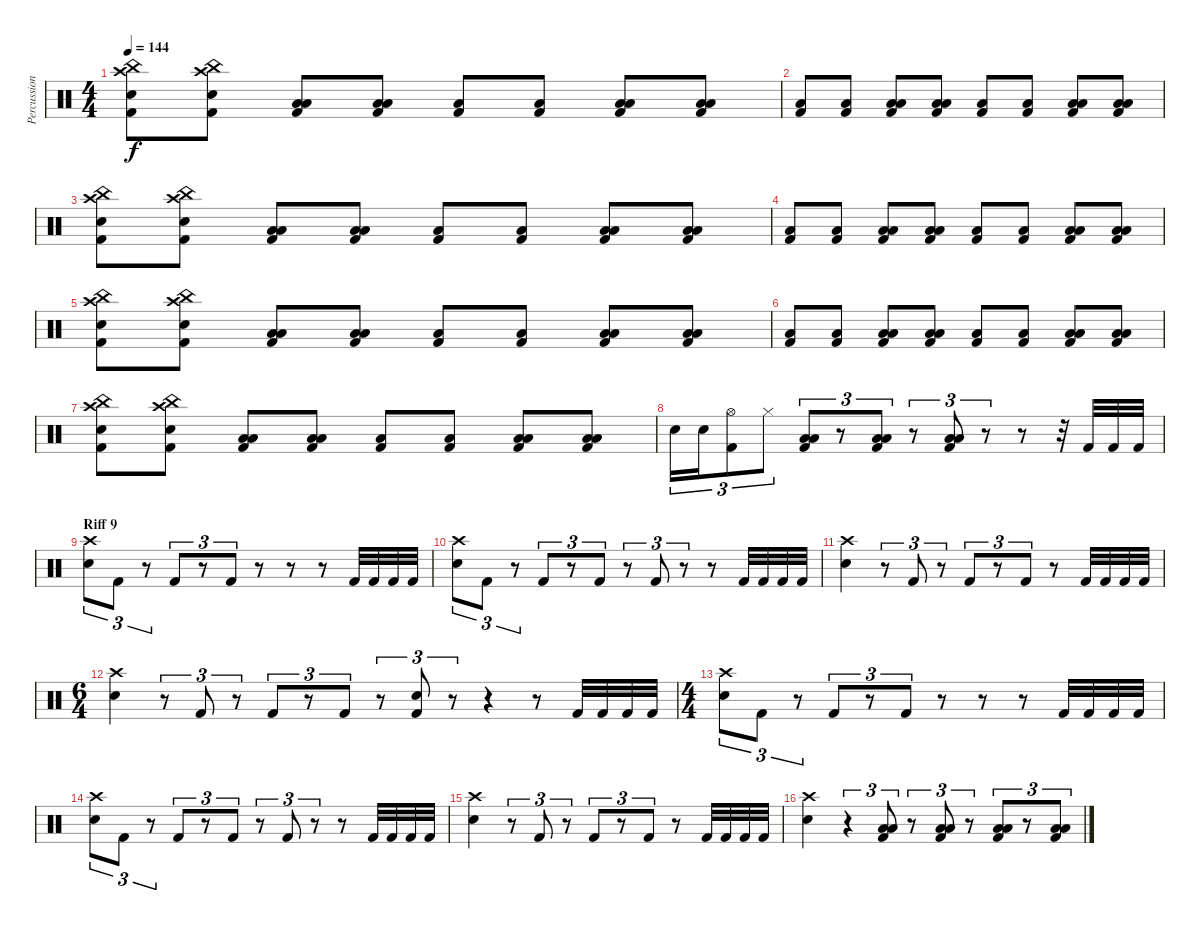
\track ("Percussion" "Percussion") {instrument percussion}
\staff {score}
\articulation defaults
\ts (4 4)
\tempo 144
\clef neutral
\ks c
("China (hit)" "Crash high (hit)" "Electric Snare (hit)" "Kick (hit) 2").8{dy f} ("China (hit)" "Crash high (hit)" "Electric Snare (hit)" "Kick (hit) 2").8 ("Low Tom (hit)" "Low Floor Tom (hit)" "Kick (hit) 2").8 ("Low Tom (hit)" "Low Floor Tom (hit)" "Kick (hit) 2").8 ("Low Floor Tom (hit)" "Kick (hit) 2").8 ("Low Floor Tom (hit)" "Kick (hit) 2").8 ("Low Tom (hit)" "Low Floor Tom (hit)" "Kick (hit) 2").8 ("Low Tom (hit)" "Low Floor Tom (hit)" "Kick (hit) 2").8 |
("Low Floor Tom (hit)" "Kick (hit) 2").8 ("Low Floor Tom (hit)" "Kick (hit) 2").8 ("Low Floor Tom (hit)" "Low Floor Tom (hit)" "Kick (hit) 2").8 ("Low Floor Tom (hit)" "Low Floor Tom (hit)" "Kick (hit) 2").8 ("Low Floor Tom (hit)" "Kick (hit) 2").8 ("Low Floor Tom (hit)" "Kick (hit) 2").8 ("Low Tom (hit)" "Low Floor Tom (hit)" "Kick (hit) 2").8 ("Low Tom (hit)" "Low Floor Tom (hit)" "Kick (hit) 2").8 |
("China (hit)" "Crash high (hit)" "Electric Snare (hit)" "Kick (hit) 2").8 ("China (hit)" "Crash high (hit)" "Electric Snare (hit)" "Kick (hit) 2").8 ("Low Tom (hit)" "Low Floor Tom (hit)" "Kick (hit) 2").8 ("Low Tom (hit)" "Low Floor Tom (hit)" "Kick (hit) 2").8 ("Low Floor Tom (hit)" "Kick (hit) 2").8 ("Low Floor Tom (hit)" "Kick (hit) 2").8 ("Low Tom (hit)" "Low Floor Tom (hit)" "Kick (hit) 2").8 ("Low Tom (hit)" "Low Floor Tom (hit)" "Kick (hit) 2").8 |
("Low Floor Tom (hit)" "Kick (hit) 2").8 ("Low Floor Tom (hit)" "Kick (hit) 2").8 ("Low Floor Tom (hit)" "Low Floor Tom (hit)" "Kick (hit) 2").8 ("Low Floor Tom (hit)" "Low Floor Tom (hit)" "Kick (hit) 2").8 ("Low Floor Tom (hit)" "Kick (hit) 2").8 ("Low Floor Tom (hit)" "Kick (hit) 2").8 ("Low Tom (hit)" "Low Floor Tom (hit)" "Kick (hit) 2").8 ("Low Tom (hit)" "Low Floor Tom (hit)" "Kick (hit) 2").8 |
("China (hit)" "Crash high (hit)" "Electric Snare (hit)" "Kick (hit) 2").8 ("China (hit)" "Crash high (hit)" "Electric Snare (hit)" "Kick (hit) 2").8 ("Low Tom (hit)" "Low Floor Tom (hit)" "Kick (hit) 2").8 ("Low Tom (hit)" "Low Floor Tom (hit)" "Kick (hit) 2").8 ("Low Floor Tom (hit)" "Kick (hit) 2").8 ("Low Floor Tom (hit)" "Kick (hit) 2").8 ("Low Tom (hit)" "Low Floor Tom (hit)" "Kick (hit) 2").8 ("Low Tom (hit)" "Low Floor Tom (hit)" "Kick (hit) 2").8 |
("Low Floor Tom (hit)" "Kick (hit) 2").8 ("Low Floor Tom (hit)" "Kick (hit) 2").8 ("Low Floor Tom (hit)" "Low Floor Tom (hit)" "Kick (hit) 2").8 ("Low Floor Tom (hit)" "Low Floor Tom (hit)" "Kick (hit) 2").8 ("Low Floor Tom (hit)" "Kick (hit) 2").8 ("Low Floor Tom (hit)" "Kick (hit) 2").8 ("Low Tom (hit)" "Low Floor Tom (hit)" "Kick (hit) 2").8 ("Low Tom (hit)" "Low Floor Tom (hit)" "Kick (hit) 2").8 |
("China (hit)" "Crash high (hit)" "Electric Snare (hit)" "Kick (hit) 2").8 ("China (hit)" "Crash high (hit)" "Electric Snare (hit)" "Kick (hit) 2").8 ("Low Tom (hit)" "Low Floor Tom (hit)" "Kick (hit) 2").8 ("Low Tom (hit)" "Low Floor Tom (hit)" "Kick (hit) 2").8 ("Low Floor Tom (hit)" "Kick (hit) 2").8 ("Low Floor Tom (hit)" "Kick (hit) 2").8 ("Low Tom (hit)" "Low Floor Tom (hit)" "Kick (hit) 2").8 ("Low Tom (hit)" "Low Floor Tom (hit)" "Kick (hit) 2").8 |
"Electric Snare (hit)".16{tu (3 2)} "Electric Snare (hit)".16{tu (3 2)} ("Hi-Hat (open)" "Kick (hit) 2").8{tu (3 2)} "Hi-Hat (closed)".8{tu (3 2)} ("Low Tom (hit)" "Low Floor Tom (hit)" "Kick (hit) 2").8{tu (3 2)} r.8{tu (3 2)} ("Low Tom (hit)" "Low Floor Tom (hit)" "Kick (hit) 2").8{tu (3 2)} r.8{tu (3 2)} ("Low Tom (hit)" "Low Floor Tom (hit)" "Kick (hit) 2").8{tu (3 2)} r.8{tu (3 2)} r.8 r.32 "Kick (hit) 2".32 "Kick (hit) 2".32 "Kick (hit) 2".32 |
\section ("" "Riff 9")
("Crash high (hit)" "Electric Snare (hit)").8{tu (3 2)} "Kick (hit) 2".8{tu (3 2)} r.8{tu (3 2)} "Kick (hit) 2".8{tu (3 2)} r.8{tu (3 2)} "Kick (hit) 2".8{tu (3 2)} r.8 r.8 r.8 "Kick (hit) 2".32 "Kick (hit) 2".32 "Kick (hit) 2".32 "Kick (hit) 2".32 |
("Crash high (hit)" "Electric Snare (hit)").8{tu (3 2)} "Kick (hit) 2".8{tu (3 2)} r.8{tu (3 2)} "Kick (hit) 2".8{tu (3 2)} r.8{tu (3 2)} "Kick (hit) 2".8{tu (3 2)} r.8{tu (3 2)} "Kick (hit) 2".8{tu (3 2)} r.8{tu (3 2)} r.8 "Kick (hit) 2".32 "Kick (hit) 2".32 "Kick (hit) 2".32 "Kick (hit) 2".32 |
("Crash high (hit)" "Electric Snare (hit)").4 r.8{tu (3 2)} "Kick (hit) 2".8{tu (3 2)} r.8{tu (3 2)} "Kick (hit) 2".8{tu (3 2)} r.8{tu (3 2)} "Kick (hit) 2".8{tu (3 2)} r.8 "Kick (hit) 2".32 "Kick (hit) 2".32 "Kick (hit) 2".32 "Kick (hit) 2".32 |
\ts (6 4)
("Crash high (hit)" "Electric Snare (hit)").4 r.8{tu (3 2)} "Kick (hit) 2".8{tu (3 2)} r.8{tu (3 2)} "Kick (hit) 2".8{tu (3 2)} r.8{tu (3 2)} "Kick (hit) 2".8{tu (3 2)} r.8{tu (3 2)} ("Electric Snare (hit)" "Kick (hit) 2").8{tu (3 2)} r.8{tu (3 2)} r.4 r.8 "Kick (hit) 2".32 "Kick (hit) 2".32 "Kick (hit) 2".32 "Kick (hit) 2".32 |
\ts (4 4)
("Crash high (hit)" "Electric Snare (hit)").8{tu (3 2)} "Kick (hit) 2".8{tu (3 2)} r.8{tu (3 2)} "Kick (hit) 2".8{tu (3 2)} r.8{tu (3 2)} "Kick (hit) 2".8{tu (3 2)} r.8 r.8 r.8 "Kick (hit) 2".32 "Kick (hit) 2".32 "Kick (hit) 2".32 "Kick (hit) 2".32 |
("Crash high (hit)" "Electric Snare (hit)").8{tu (3 2)} "Kick (hit) 2".8{tu (3 2)} r.8{tu (3 2)} "Kick (hit) 2".8{tu (3 2)} r.8{tu (3 2)} "Kick (hit) 2".8{tu (3 2)} r.8{tu (3 2)} "Kick (hit) 2".8{tu (3 2)} r.8{tu (3 2)} r.8 "Kick (hit) 2".32 "Kick (hit) 2".32 "Kick (hit) 2".32 "Kick (hit) 2".32 |
("Crash high (hit)" "Electric Snare (hit)").4 r.8{tu (3 2)} "Kick (hit) 2".8{tu (3 2)} r.8{tu (3 2)} "Kick (hit) 2".8{tu (3 2)} r.8{tu (3 2)} "Kick (hit) 2".8{tu (3 2)} r.8 "Kick (hit) 2".32 "Kick (hit) 2".32 "Kick (hit) 2".32 "Kick (hit) 2".32 |
("Crash high (hit)" "Electric Snare (hit)").4 r.4{tu (3 2)} ("Low Tom (hit)" "Low Floor Tom (hit)" "Kick (hit) 2").8{tu (3 2)} r.8{tu (3 2)} ("Low Tom (hit)" "Low Floor Tom (hit)" "Kick (hit) 2").8{tu (3 2)} r.8{tu (3 2)} ("Low Tom (hit)" "Low Floor Tom (hit)" "Kick (hit) 2").8{tu (3 2)} r.8{tu (3 2)} ("Low Tom (hit)" "Low Floor Tom (hit)" "Kick (hit) 2").8{tu (3 2)}
